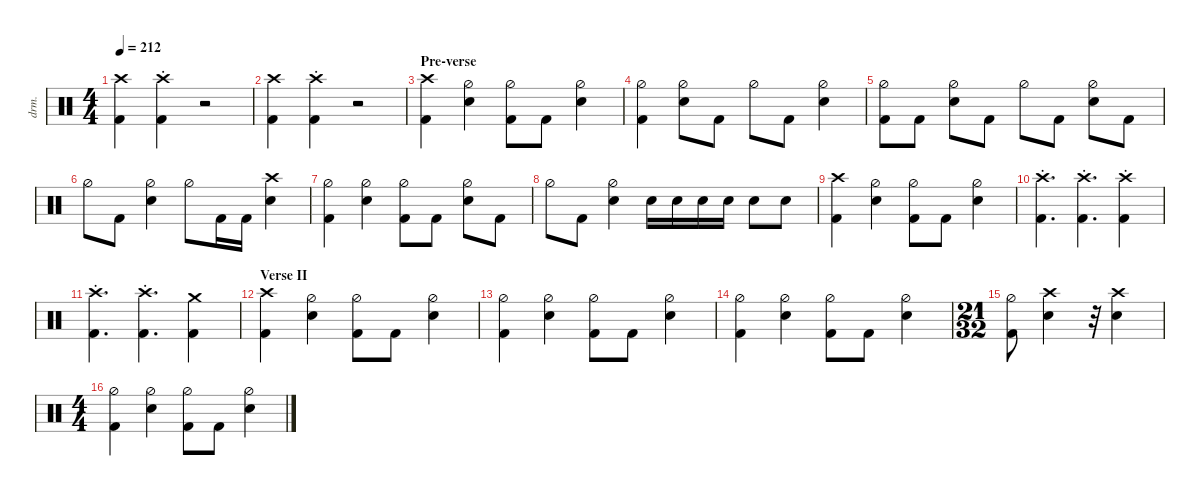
\defaultSystemsLayout 4
\hideDynamics
\bracketExtendMode nobrackets
\track ("Drums" "drm.") {defaultSystemsLayout 4 multiBarRest instrument percussion}
\staff
\articulation defaults
\ts (4 4)
\tempo 212
\clef neutral
\ks c
("Kick (hit) 2" "Crash high (hit)").4{dy ff} ("Kick (hit) 2" "Crash high (hit)"{st}).4 r.2 |
("Kick (hit) 2" "Crash high (hit)").4 ("Kick (hit) 2" "Crash high (hit)"{st}).4 r.2 |
\section ("" "Pre-verse")
("Crash high (hit)" "Kick (hit) 2").4{dy f} ("Hi-Hat (half)" "Snare (hit) 2").4 ("Hi-Hat (half)" "Kick (hit) 2").8 "Kick (hit) 2".8 ("Hi-Hat (half)" "Snare (hit) 2").4 |
("Kick (hit) 2" "Hi-Hat (half)").4 ("Hi-Hat (half)" "Snare (hit) 2").8 "Kick (hit) 2".8 "Hi-Hat (half)".8 "Kick (hit) 2".8 ("Hi-Hat (half)" "Snare (hit) 2").4 |
("Hi-Hat (half)" "Kick (hit) 2").8 "Kick (hit) 2".8 ("Hi-Hat (half)" "Snare (hit) 2").8 "Kick (hit) 2".8 "Hi-Hat (half)".8 "Kick (hit) 2".8 ("Hi-Hat (half)" "Snare (hit) 2").8 "Kick (hit) 2".8 |
"Hi-Hat (half)".8 "Kick (hit) 2".8 ("Hi-Hat (half)" "Snare (hit) 2").4 "Hi-Hat (half)".8 "Kick (hit) 2".16 "Kick (hit) 2".16 ("Snare (hit) 2" "Crash high (hit)").4 |
("Kick (hit) 2" "Hi-Hat (half)").4 ("Hi-Hat (half)" "Snare (hit) 2").4 ("Hi-Hat (half)" "Kick (hit) 2").8 "Kick (hit) 2".8 ("Hi-Hat (half)" "Snare (hit) 2").8 "Kick (hit) 2".8 |
"Hi-Hat (half)".8 "Kick (hit) 2".8 ("Snare (hit) 2" "Hi-Hat (half)").4 "Snare (hit) 2".16 "Snare (hit) 2".16{dy mp} "Snare (hit) 2".16 "Snare (hit) 2".16 "Snare (hit) 2".8 "Snare (hit) 2".8{dy f} |
("Crash high (hit)" "Kick (hit) 2").4 ("Hi-Hat (half)" "Snare (hit) 2").4 ("Hi-Hat (half)" "Kick (hit) 2").8 "Kick (hit) 2".8 ("Hi-Hat (half)" "Snare (hit) 2").4 |
("Kick (hit) 2" "Crash high (hit)"{st}).4{d dy ff} ("Kick (hit) 2" "Crash high (hit)"{st}).4{d} ("Kick (hit) 2" "Crash high (hit)"{st}).4 |
("Kick (hit) 2" "Crash high (hit)"{st}).4{d} ("Kick (hit) 2" "Crash high (hit)"{st}).4{d} ("Kick (hit) 2" "Crash medium (hit)").4 |
\section ("" "Verse II")
("Crash high (hit)" "Kick (hit) 2").4{dy f} ("Hi-Hat (half)" "Snare (hit) 2").4 ("Hi-Hat (half)" "Kick (hit) 2").8 "Kick (hit) 2".8 ("Hi-Hat (half)" "Snare (hit) 2").4 |
("Kick (hit) 2" "Hi-Hat (half)").4 ("Hi-Hat (half)" "Snare (hit) 2").4 ("Hi-Hat (half)" "Kick (hit) 2").8 "Kick (hit) 2".8 ("Hi-Hat (half)" "Snare (hit) 2").4 |
("Kick (hit) 2" "Hi-Hat (half)").4 ("Hi-Hat (half)" "Snare (hit) 2").4 ("Hi-Hat (half)" "Kick (hit) 2").8 "Kick (hit) 2".8 ("Hi-Hat (half)" "Snare (hit) 2").4 |
\ts (21 32)
\beaming (8 3 2)
("Kick (hit) 2" "Hi-Hat (half)").8 ("Snare (hit) 2" "Crash high (hit)").4 r.32 ("Snare (hit) 2" "Crash high (hit)").4 |
\ts (4 4)
\beaming (8 2 2 2 2)
("Kick (hit) 2" "Hi-Hat (half)").4 ("Hi-Hat (half)" "Snare (hit) 2").4 ("Hi-Hat (half)" "Kick (hit) 2").8 "Kick (hit) 2".8 ("Hi-Hat (half)" "Snare (hit) 2").4
